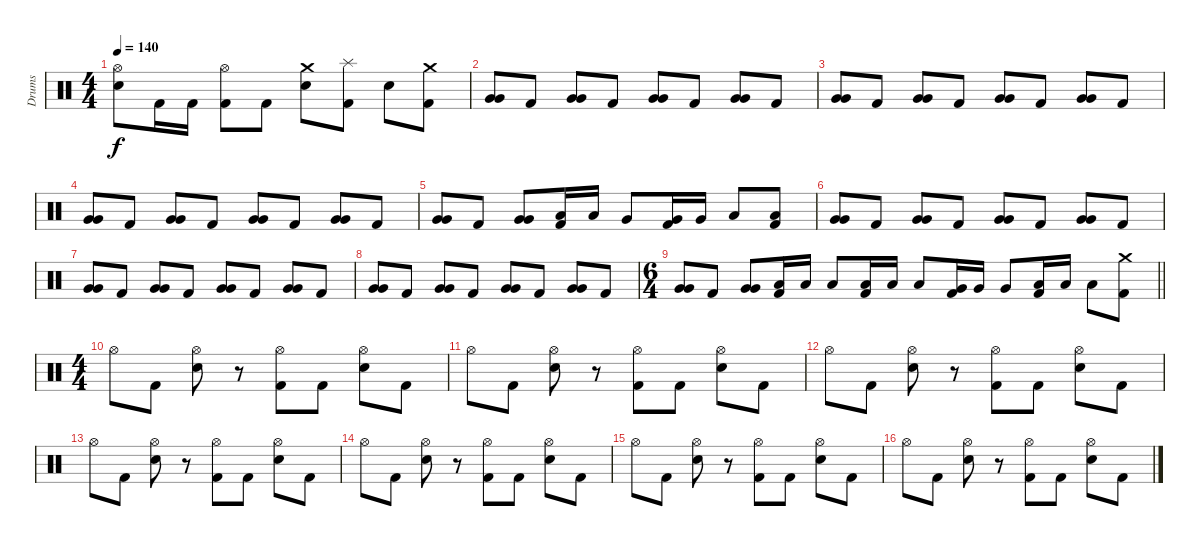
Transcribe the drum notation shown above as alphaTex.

\track ("Drums" "Drums") {instrument percussion}
\staff {score}
\articulation defaults
\ts (4 4)
\tempo 140
\clef neutral
\ks c
("Hi-Hat (open)" "Electric Snare (hit)").8{dy f} "Kick (hit) 2".16 "Kick (hit) 2".16 ("Hi-Hat (open)" "Kick (hit) 2").8 "Kick (hit) 2".8 ("Crash medium (hit)" "Electric Snare (hit)").8 ("Splash (hit)" "Kick (hit) 2").8 "Electric Snare (hit)".8 ("Crash medium (hit)" "Kick (hit) 2").8 |
("Very Low Tom (hit)" "Very Low Tom (hit)").8 "Kick (hit) 2".8 ("Very Low Tom (hit)" "Very Low Tom (hit)").8 "Kick (hit) 2".8 ("Very Low Tom (hit)" "Very Low Tom (hit)").8 "Kick (hit) 2".8 ("Very Low Tom (hit)" "Very Low Tom (hit)").8 "Kick (hit) 2".8 |
("Very Low Tom (hit)" "Very Low Tom (hit)").8 "Kick (hit) 2".8 ("Very Low Tom (hit)" "Very Low Tom (hit)").8 "Kick (hit) 2".8 ("Very Low Tom (hit)" "Very Low Tom (hit)").8 "Kick (hit) 2".8 ("Very Low Tom (hit)" "Very Low Tom (hit)").8 "Kick (hit) 2".8 |
("Very Low Tom (hit)" "Very Low Tom (hit)").8 "Kick (hit) 2".8 ("Very Low Tom (hit)" "Very Low Tom (hit)").8 "Kick (hit) 2".8 ("Very Low Tom (hit)" "Very Low Tom (hit)").8 "Kick (hit) 2".8 ("Very Low Tom (hit)" "Very Low Tom (hit)").8 "Kick (hit) 2".8 |
("Very Low Tom (hit)" "Very Low Tom (hit)").8 "Kick (hit) 2".8 ("Very Low Tom (hit)" "Very Low Tom (hit)").8 ("Low Tom (hit)" "Kick (hit) 2").16 "Low Tom (hit)".16 "Very Low Tom (hit)".8 ("Very Low Tom (hit)" "Kick (hit) 2").16 "Very Low Tom (hit)".16 "Low Floor Tom (hit)".8 ("Low Floor Tom (hit)" "Kick (hit) 2").8 |
("Very Low Tom (hit)" "Very Low Tom (hit)").8 "Kick (hit) 2".8 ("Very Low Tom (hit)" "Very Low Tom (hit)").8 "Kick (hit) 2".8 ("Very Low Tom (hit)" "Very Low Tom (hit)").8 "Kick (hit) 2".8 ("Very Low Tom (hit)" "Very Low Tom (hit)").8 "Kick (hit) 2".8 |
("Very Low Tom (hit)" "Very Low Tom (hit)").8 "Kick (hit) 2".8 ("Very Low Tom (hit)" "Very Low Tom (hit)").8 "Kick (hit) 2".8 ("Very Low Tom (hit)" "Very Low Tom (hit)").8 "Kick (hit) 2".8 ("Very Low Tom (hit)" "Very Low Tom (hit)").8 "Kick (hit) 2".8 |
("Very Low Tom (hit)" "Very Low Tom (hit)").8 "Kick (hit) 2".8 ("Very Low Tom (hit)" "Very Low Tom (hit)").8 "Kick (hit) 2".8 ("Very Low Tom (hit)" "Very Low Tom (hit)").8 "Kick (hit) 2".8 ("Very Low Tom (hit)" "Very Low Tom (hit)").8 "Kick (hit) 2".8 |
\ts (6 4)
\barLineRight lightlight
("Very Low Tom (hit)" "Very Low Tom (hit)").8 "Kick (hit) 2".8 ("Very Low Tom (hit)" "Very Low Tom (hit)").8 ("Low Tom (hit)" "Kick (hit) 2").16 "Low Tom (hit)".16 "Low Tom (hit)".8 ("Low Tom (hit)" "Kick (hit) 2").16 "Low Tom (hit)".16 "Low Tom (hit)".8 ("Very Low Tom (hit)" "Kick (hit) 2").16 "Very Low Tom (hit)".16 "Very Low Tom (hit)".8 ("Low Floor Tom (hit)" "Kick (hit) 2").16 "Low Floor Tom (hit)".16 "Low Floor Tom (hit)".8 ("Crash medium (hit)" "Kick (hit) 2").8 |
\ts (4 4)
"Hi-Hat (open)".8 "Kick (hit) 2".8 ("Hi-Hat (open)" "Electric Snare (hit)").8 r.8 ("Hi-Hat (open)" "Kick (hit) 2").8 "Kick (hit) 2".8 ("Hi-Hat (open)" "Electric Snare (hit)").8 "Kick (hit) 2".8 |
"Hi-Hat (open)".8 "Kick (hit) 2".8 ("Hi-Hat (open)" "Electric Snare (hit)").8 r.8 ("Hi-Hat (open)" "Kick (hit) 2").8 "Kick (hit) 2".8 ("Hi-Hat (open)" "Electric Snare (hit)").8 "Kick (hit) 2".8 |
"Hi-Hat (open)".8 "Kick (hit) 2".8 ("Hi-Hat (open)" "Electric Snare (hit)").8 r.8 ("Hi-Hat (open)" "Kick (hit) 2").8 "Kick (hit) 2".8 ("Hi-Hat (open)" "Electric Snare (hit)").8 "Kick (hit) 2".8 |
"Hi-Hat (open)".8 "Kick (hit) 2".8 ("Hi-Hat (open)" "Electric Snare (hit)").8 r.8 ("Hi-Hat (open)" "Kick (hit) 2").8 "Kick (hit) 2".8 ("Hi-Hat (open)" "Electric Snare (hit)").8 "Kick (hit) 2".8 |
"Hi-Hat (open)".8 "Kick (hit) 2".8 ("Hi-Hat (open)" "Electric Snare (hit)").8 r.8 ("Hi-Hat (open)" "Kick (hit) 2").8 "Kick (hit) 2".8 ("Hi-Hat (open)" "Electric Snare (hit)").8 "Kick (hit) 2".8 |
"Hi-Hat (open)".8 "Kick (hit) 2".8 ("Hi-Hat (open)" "Electric Snare (hit)").8 r.8 ("Hi-Hat (open)" "Kick (hit) 2").8 "Kick (hit) 2".8 ("Hi-Hat (open)" "Electric Snare (hit)").8 "Kick (hit) 2".8 |
"Hi-Hat (open)".8 "Kick (hit) 2".8 ("Hi-Hat (open)" "Electric Snare (hit)").8 r.8 ("Hi-Hat (open)" "Kick (hit) 2").8 "Kick (hit) 2".8 ("Hi-Hat (open)" "Electric Snare (hit)").8 "Kick (hit) 2".8
